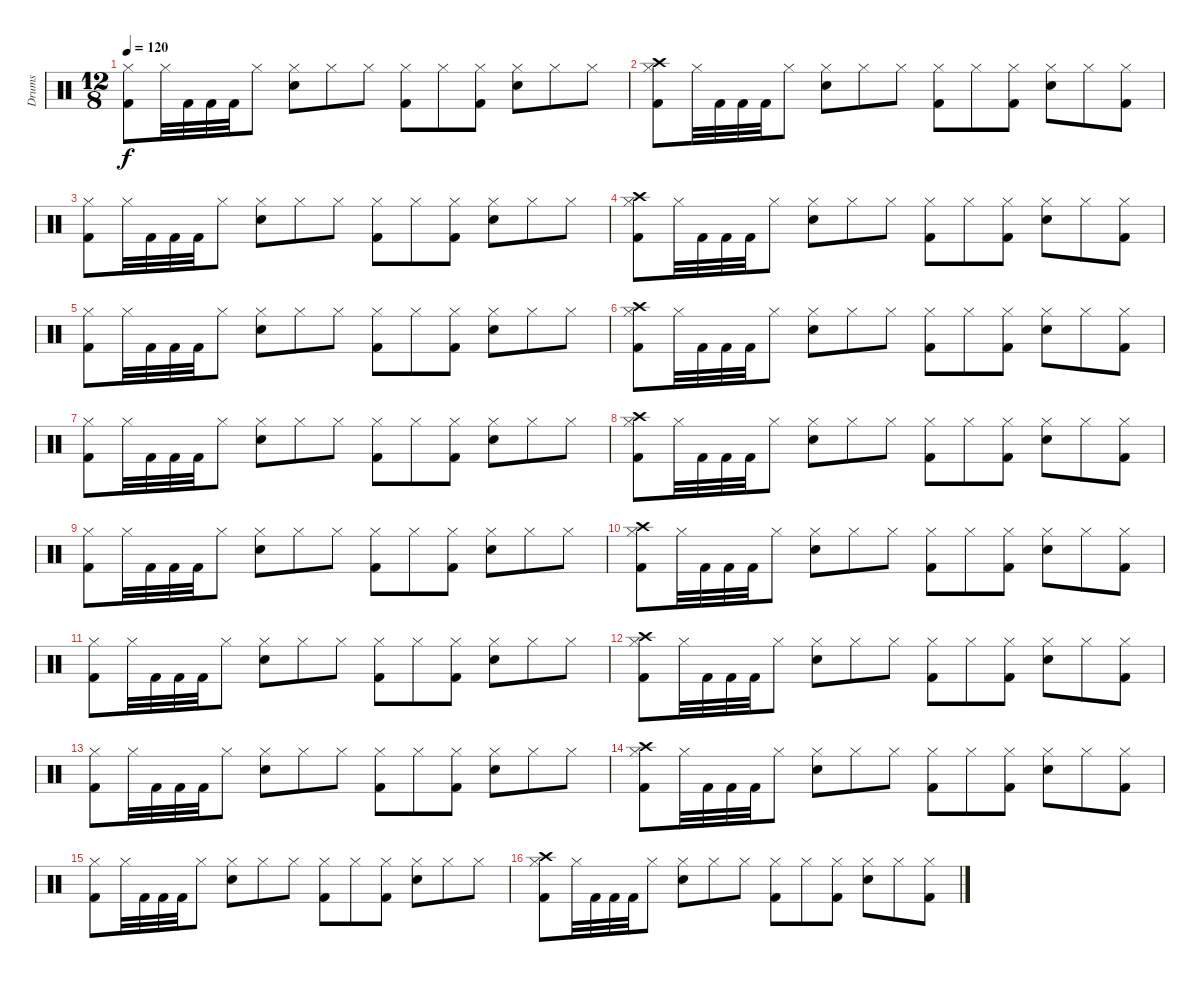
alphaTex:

\track ("Drums" "Drums") {instrument percussion}
\staff {score}
\articulation defaults
\ts (12 8)
\tempo 120
\clef neutral
\ks c
("Hi-Hat (closed)" "Kick (hit) 2").8{dy f} "Hi-Hat (closed)".32 "Kick (hit) 2".32 "Kick (hit) 2".32 "Kick (hit) 2".32 "Hi-Hat (closed)".8 ("Hi-Hat (closed)" "Snare (hit) 2").8 "Hi-Hat (closed)".8 "Hi-Hat (closed)".8 ("Hi-Hat (closed)" "Kick (hit) 2").8 "Hi-Hat (closed)".8 ("Hi-Hat (closed)" "Kick (hit) 2").8 ("Hi-Hat (closed)" "Snare (hit) 2").8 "Hi-Hat (closed)".8 "Hi-Hat (closed)".8 |
("Crash high (hit)" "Hi-Hat (closed)" "Kick (hit) 2").8 "Hi-Hat (closed)".32 "Kick (hit) 2".32 "Kick (hit) 2".32 "Kick (hit) 2".32 "Hi-Hat (closed)".8 ("Hi-Hat (closed)" "Snare (hit) 2").8 "Hi-Hat (closed)".8 "Hi-Hat (closed)".8 ("Hi-Hat (closed)" "Kick (hit) 2").8 "Hi-Hat (closed)".8 ("Hi-Hat (closed)" "Kick (hit) 2").8 ("Hi-Hat (closed)" "Snare (hit) 2").8 "Hi-Hat (closed)".8 ("Hi-Hat (closed)" "Kick (hit) 2").8 |
("Hi-Hat (closed)" "Kick (hit) 2").8 "Hi-Hat (closed)".32 "Kick (hit) 2".32 "Kick (hit) 2".32 "Kick (hit) 2".32 "Hi-Hat (closed)".8 ("Hi-Hat (closed)" "Snare (hit) 2").8 "Hi-Hat (closed)".8 "Hi-Hat (closed)".8 ("Hi-Hat (closed)" "Kick (hit) 2").8 "Hi-Hat (closed)".8 ("Hi-Hat (closed)" "Kick (hit) 2").8 ("Hi-Hat (closed)" "Snare (hit) 2").8 "Hi-Hat (closed)".8 "Hi-Hat (closed)".8 |
("Crash high (hit)" "Hi-Hat (closed)" "Kick (hit) 2").8 "Hi-Hat (closed)".32 "Kick (hit) 2".32 "Kick (hit) 2".32 "Kick (hit) 2".32 "Hi-Hat (closed)".8 ("Hi-Hat (closed)" "Snare (hit) 2").8 "Hi-Hat (closed)".8 "Hi-Hat (closed)".8 ("Hi-Hat (closed)" "Kick (hit) 2").8 "Hi-Hat (closed)".8 ("Hi-Hat (closed)" "Kick (hit) 2").8 ("Hi-Hat (closed)" "Snare (hit) 2").8 "Hi-Hat (closed)".8 ("Hi-Hat (closed)" "Kick (hit) 2").8 |
("Hi-Hat (closed)" "Kick (hit) 2").8 "Hi-Hat (closed)".32 "Kick (hit) 2".32 "Kick (hit) 2".32 "Kick (hit) 2".32 "Hi-Hat (closed)".8 ("Hi-Hat (closed)" "Snare (hit) 2").8 "Hi-Hat (closed)".8 "Hi-Hat (closed)".8 ("Hi-Hat (closed)" "Kick (hit) 2").8 "Hi-Hat (closed)".8 ("Hi-Hat (closed)" "Kick (hit) 2").8 ("Hi-Hat (closed)" "Snare (hit) 2").8 "Hi-Hat (closed)".8 "Hi-Hat (closed)".8 |
("Crash high (hit)" "Hi-Hat (closed)" "Kick (hit) 2").8 "Hi-Hat (closed)".32 "Kick (hit) 2".32 "Kick (hit) 2".32 "Kick (hit) 2".32 "Hi-Hat (closed)".8 ("Hi-Hat (closed)" "Snare (hit) 2").8 "Hi-Hat (closed)".8 "Hi-Hat (closed)".8 ("Hi-Hat (closed)" "Kick (hit) 2").8 "Hi-Hat (closed)".8 ("Hi-Hat (closed)" "Kick (hit) 2").8 ("Hi-Hat (closed)" "Snare (hit) 2").8 "Hi-Hat (closed)".8 ("Hi-Hat (closed)" "Kick (hit) 2").8 |
("Hi-Hat (closed)" "Kick (hit) 2").8 "Hi-Hat (closed)".32 "Kick (hit) 2".32 "Kick (hit) 2".32 "Kick (hit) 2".32 "Hi-Hat (closed)".8 ("Hi-Hat (closed)" "Snare (hit) 2").8 "Hi-Hat (closed)".8 "Hi-Hat (closed)".8 ("Hi-Hat (closed)" "Kick (hit) 2").8 "Hi-Hat (closed)".8 ("Hi-Hat (closed)" "Kick (hit) 2").8 ("Hi-Hat (closed)" "Snare (hit) 2").8 "Hi-Hat (closed)".8 "Hi-Hat (closed)".8 |
("Crash high (hit)" "Hi-Hat (closed)" "Kick (hit) 2").8 "Hi-Hat (closed)".32 "Kick (hit) 2".32 "Kick (hit) 2".32 "Kick (hit) 2".32 "Hi-Hat (closed)".8 ("Hi-Hat (closed)" "Snare (hit) 2").8 "Hi-Hat (closed)".8 "Hi-Hat (closed)".8 ("Hi-Hat (closed)" "Kick (hit) 2").8 "Hi-Hat (closed)".8 ("Hi-Hat (closed)" "Kick (hit) 2").8 ("Hi-Hat (closed)" "Snare (hit) 2").8 "Hi-Hat (closed)".8 ("Hi-Hat (closed)" "Kick (hit) 2").8 |
("Hi-Hat (closed)" "Kick (hit) 2").8 "Hi-Hat (closed)".32 "Kick (hit) 2".32 "Kick (hit) 2".32 "Kick (hit) 2".32 "Hi-Hat (closed)".8 ("Hi-Hat (closed)" "Snare (hit) 2").8 "Hi-Hat (closed)".8 "Hi-Hat (closed)".8 ("Hi-Hat (closed)" "Kick (hit) 2").8 "Hi-Hat (closed)".8 ("Hi-Hat (closed)" "Kick (hit) 2").8 ("Hi-Hat (closed)" "Snare (hit) 2").8 "Hi-Hat (closed)".8 "Hi-Hat (closed)".8 |
("Crash high (hit)" "Hi-Hat (closed)" "Kick (hit) 2").8 "Hi-Hat (closed)".32 "Kick (hit) 2".32 "Kick (hit) 2".32 "Kick (hit) 2".32 "Hi-Hat (closed)".8 ("Hi-Hat (closed)" "Snare (hit) 2").8 "Hi-Hat (closed)".8 "Hi-Hat (closed)".8 ("Hi-Hat (closed)" "Kick (hit) 2").8 "Hi-Hat (closed)".8 ("Hi-Hat (closed)" "Kick (hit) 2").8 ("Hi-Hat (closed)" "Snare (hit) 2").8 "Hi-Hat (closed)".8 ("Hi-Hat (closed)" "Kick (hit) 2").8 |
("Hi-Hat (closed)" "Kick (hit) 2").8 "Hi-Hat (closed)".32 "Kick (hit) 2".32 "Kick (hit) 2".32 "Kick (hit) 2".32 "Hi-Hat (closed)".8 ("Hi-Hat (closed)" "Snare (hit) 2").8 "Hi-Hat (closed)".8 "Hi-Hat (closed)".8 ("Hi-Hat (closed)" "Kick (hit) 2").8 "Hi-Hat (closed)".8 ("Hi-Hat (closed)" "Kick (hit) 2").8 ("Hi-Hat (closed)" "Snare (hit) 2").8 "Hi-Hat (closed)".8 "Hi-Hat (closed)".8 |
("Crash high (hit)" "Hi-Hat (closed)" "Kick (hit) 2").8 "Hi-Hat (closed)".32 "Kick (hit) 2".32 "Kick (hit) 2".32 "Kick (hit) 2".32 "Hi-Hat (closed)".8 ("Hi-Hat (closed)" "Snare (hit) 2").8 "Hi-Hat (closed)".8 "Hi-Hat (closed)".8 ("Hi-Hat (closed)" "Kick (hit) 2").8 "Hi-Hat (closed)".8 ("Hi-Hat (closed)" "Kick (hit) 2").8 ("Hi-Hat (closed)" "Snare (hit) 2").8 "Hi-Hat (closed)".8 ("Hi-Hat (closed)" "Kick (hit) 2").8 |
("Hi-Hat (closed)" "Kick (hit) 2").8 "Hi-Hat (closed)".32 "Kick (hit) 2".32 "Kick (hit) 2".32 "Kick (hit) 2".32 "Hi-Hat (closed)".8 ("Hi-Hat (closed)" "Snare (hit) 2").8 "Hi-Hat (closed)".8 "Hi-Hat (closed)".8 ("Hi-Hat (closed)" "Kick (hit) 2").8 "Hi-Hat (closed)".8 ("Hi-Hat (closed)" "Kick (hit) 2").8 ("Hi-Hat (closed)" "Snare (hit) 2").8 "Hi-Hat (closed)".8 "Hi-Hat (closed)".8 |
("Crash high (hit)" "Hi-Hat (closed)" "Kick (hit) 2").8 "Hi-Hat (closed)".32 "Kick (hit) 2".32 "Kick (hit) 2".32 "Kick (hit) 2".32 "Hi-Hat (closed)".8 ("Hi-Hat (closed)" "Snare (hit) 2").8 "Hi-Hat (closed)".8 "Hi-Hat (closed)".8 ("Hi-Hat (closed)" "Kick (hit) 2").8 "Hi-Hat (closed)".8 ("Hi-Hat (closed)" "Kick (hit) 2").8 ("Hi-Hat (closed)" "Snare (hit) 2").8 "Hi-Hat (closed)".8 ("Hi-Hat (closed)" "Kick (hit) 2").8 |
("Hi-Hat (closed)" "Kick (hit) 2").8 "Hi-Hat (closed)".32 "Kick (hit) 2".32 "Kick (hit) 2".32 "Kick (hit) 2".32 "Hi-Hat (closed)".8 ("Hi-Hat (closed)" "Snare (hit) 2").8 "Hi-Hat (closed)".8 "Hi-Hat (closed)".8 ("Hi-Hat (closed)" "Kick (hit) 2").8 "Hi-Hat (closed)".8 ("Hi-Hat (closed)" "Kick (hit) 2").8 ("Hi-Hat (closed)" "Snare (hit) 2").8 "Hi-Hat (closed)".8 "Hi-Hat (closed)".8 |
("Crash high (hit)" "Hi-Hat (closed)" "Kick (hit) 2").8 "Hi-Hat (closed)".32 "Kick (hit) 2".32 "Kick (hit) 2".32 "Kick (hit) 2".32 "Hi-Hat (closed)".8 ("Hi-Hat (closed)" "Snare (hit) 2").8 "Hi-Hat (closed)".8 "Hi-Hat (closed)".8 ("Hi-Hat (closed)" "Kick (hit) 2").8 "Hi-Hat (closed)".8 ("Hi-Hat (closed)" "Kick (hit) 2").8 ("Hi-Hat (closed)" "Snare (hit) 2").8 "Hi-Hat (closed)".8 ("Hi-Hat (closed)" "Kick (hit) 2").8
